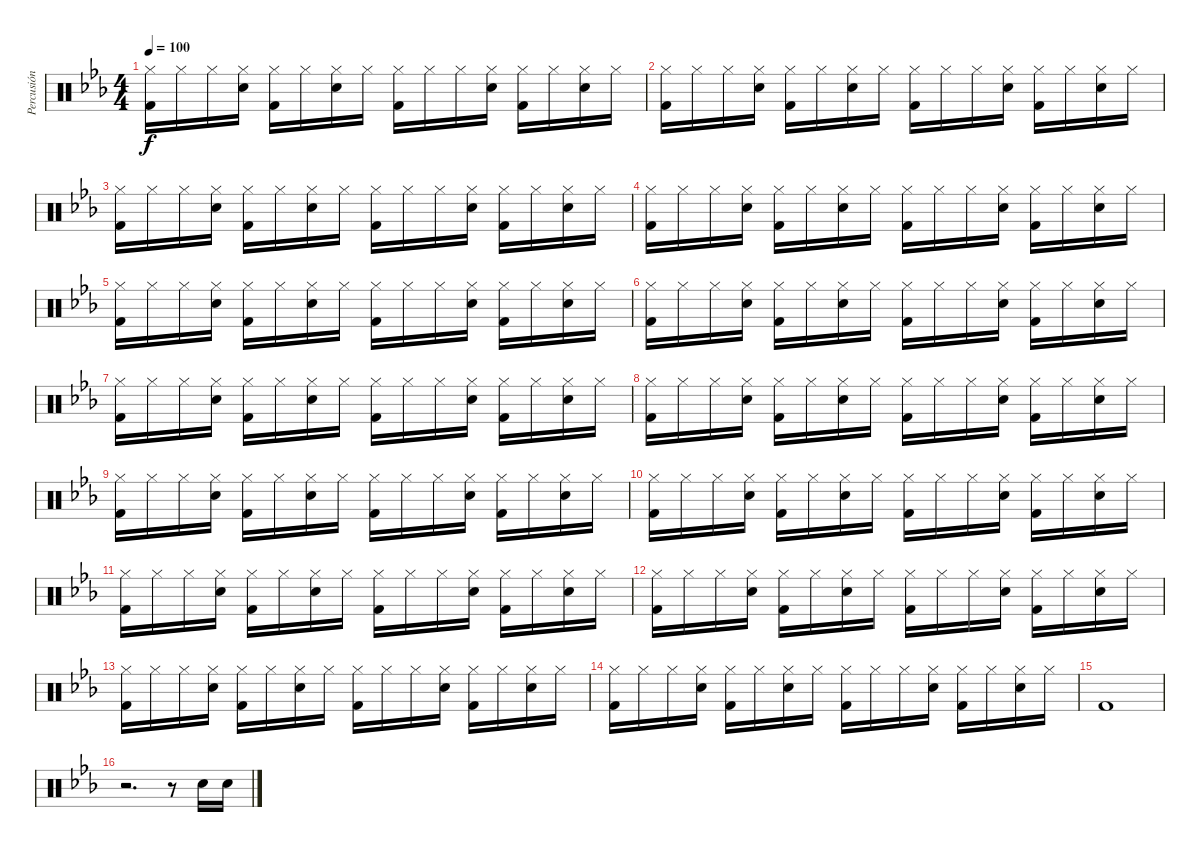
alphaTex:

\track ("Percusión" "Percusión") {instrument percussion}
\staff {score}
\articulation defaults
\ts (4 4)
\tempo 100
\clef neutral
\ks eb
("Hi-Hat (closed)" "Kick (hit) 2").16{dy f} "Hi-Hat (closed)".16 "Hi-Hat (closed)".16 ("Hi-Hat (closed)" "Electric Snare (hit)").16 ("Hi-Hat (closed)" "Kick (hit) 2").16 "Hi-Hat (closed)".16 ("Hi-Hat (closed)" "Electric Snare (hit)").16 "Hi-Hat (closed)".16 ("Hi-Hat (closed)" "Kick (hit) 2").16 "Hi-Hat (closed)".16 "Hi-Hat (closed)".16 ("Hi-Hat (closed)" "Electric Snare (hit)").16 ("Hi-Hat (closed)" "Kick (hit) 2").16 "Hi-Hat (closed)".16 ("Hi-Hat (closed)" "Electric Snare (hit)").16 "Hi-Hat (closed)".16 |
("Hi-Hat (closed)" "Kick (hit) 2").16 "Hi-Hat (closed)".16 "Hi-Hat (closed)".16 ("Hi-Hat (closed)" "Electric Snare (hit)").16 ("Hi-Hat (closed)" "Kick (hit) 2").16 "Hi-Hat (closed)".16 ("Hi-Hat (closed)" "Electric Snare (hit)").16 "Hi-Hat (closed)".16 ("Hi-Hat (closed)" "Kick (hit) 2").16 "Hi-Hat (closed)".16 "Hi-Hat (closed)".16 ("Hi-Hat (closed)" "Electric Snare (hit)").16 ("Hi-Hat (closed)" "Kick (hit) 2").16 "Hi-Hat (closed)".16 ("Hi-Hat (closed)" "Electric Snare (hit)").16 "Hi-Hat (closed)".16 |
("Hi-Hat (closed)" "Kick (hit) 2").16 "Hi-Hat (closed)".16 "Hi-Hat (closed)".16 ("Hi-Hat (closed)" "Electric Snare (hit)").16 ("Hi-Hat (closed)" "Kick (hit) 2").16 "Hi-Hat (closed)".16 ("Hi-Hat (closed)" "Electric Snare (hit)").16 "Hi-Hat (closed)".16 ("Hi-Hat (closed)" "Kick (hit) 2").16 "Hi-Hat (closed)".16 "Hi-Hat (closed)".16 ("Hi-Hat (closed)" "Electric Snare (hit)").16 ("Hi-Hat (closed)" "Kick (hit) 2").16 "Hi-Hat (closed)".16 ("Hi-Hat (closed)" "Electric Snare (hit)").16 "Hi-Hat (closed)".16 |
("Hi-Hat (closed)" "Kick (hit) 2").16 "Hi-Hat (closed)".16 "Hi-Hat (closed)".16 ("Hi-Hat (closed)" "Electric Snare (hit)").16 ("Hi-Hat (closed)" "Kick (hit) 2").16 "Hi-Hat (closed)".16 ("Hi-Hat (closed)" "Electric Snare (hit)").16 "Hi-Hat (closed)".16 ("Hi-Hat (closed)" "Kick (hit) 2").16 "Hi-Hat (closed)".16 "Hi-Hat (closed)".16 ("Hi-Hat (closed)" "Electric Snare (hit)").16 ("Hi-Hat (closed)" "Kick (hit) 2").16 "Hi-Hat (closed)".16 ("Hi-Hat (closed)" "Electric Snare (hit)").16 "Hi-Hat (closed)".16 |
("Hi-Hat (closed)" "Kick (hit) 2").16 "Hi-Hat (closed)".16 "Hi-Hat (closed)".16 ("Hi-Hat (closed)" "Electric Snare (hit)").16 ("Hi-Hat (closed)" "Kick (hit) 2").16 "Hi-Hat (closed)".16 ("Hi-Hat (closed)" "Electric Snare (hit)").16 "Hi-Hat (closed)".16 ("Hi-Hat (closed)" "Kick (hit) 2").16 "Hi-Hat (closed)".16 "Hi-Hat (closed)".16 ("Hi-Hat (closed)" "Electric Snare (hit)").16 ("Hi-Hat (closed)" "Kick (hit) 2").16 "Hi-Hat (closed)".16 ("Hi-Hat (closed)" "Electric Snare (hit)").16 "Hi-Hat (closed)".16 |
("Hi-Hat (closed)" "Kick (hit) 2").16 "Hi-Hat (closed)".16 "Hi-Hat (closed)".16 ("Hi-Hat (closed)" "Electric Snare (hit)").16 ("Hi-Hat (closed)" "Kick (hit) 2").16 "Hi-Hat (closed)".16 ("Hi-Hat (closed)" "Electric Snare (hit)").16 "Hi-Hat (closed)".16 ("Hi-Hat (closed)" "Kick (hit) 2").16 "Hi-Hat (closed)".16 "Hi-Hat (closed)".16 ("Hi-Hat (closed)" "Electric Snare (hit)").16 ("Hi-Hat (closed)" "Kick (hit) 2").16 "Hi-Hat (closed)".16 ("Hi-Hat (closed)" "Electric Snare (hit)").16 "Hi-Hat (closed)".16 |
("Hi-Hat (closed)" "Kick (hit) 2").16 "Hi-Hat (closed)".16 "Hi-Hat (closed)".16 ("Hi-Hat (closed)" "Electric Snare (hit)").16 ("Hi-Hat (closed)" "Kick (hit) 2").16 "Hi-Hat (closed)".16 ("Hi-Hat (closed)" "Electric Snare (hit)").16 "Hi-Hat (closed)".16 ("Hi-Hat (closed)" "Kick (hit) 2").16 "Hi-Hat (closed)".16 "Hi-Hat (closed)".16 ("Hi-Hat (closed)" "Electric Snare (hit)").16 ("Hi-Hat (closed)" "Kick (hit) 2").16 "Hi-Hat (closed)".16 ("Hi-Hat (closed)" "Electric Snare (hit)").16 "Hi-Hat (closed)".16 |
("Hi-Hat (closed)" "Kick (hit) 2").16 "Hi-Hat (closed)".16 "Hi-Hat (closed)".16 ("Hi-Hat (closed)" "Electric Snare (hit)").16 ("Hi-Hat (closed)" "Kick (hit) 2").16 "Hi-Hat (closed)".16 ("Hi-Hat (closed)" "Electric Snare (hit)").16 "Hi-Hat (closed)".16 ("Hi-Hat (closed)" "Kick (hit) 2").16 "Hi-Hat (closed)".16 "Hi-Hat (closed)".16 ("Hi-Hat (closed)" "Electric Snare (hit)").16 ("Hi-Hat (closed)" "Kick (hit) 2").16 "Hi-Hat (closed)".16 ("Hi-Hat (closed)" "Electric Snare (hit)").16 "Hi-Hat (closed)".16 |
("Hi-Hat (closed)" "Kick (hit) 2").16 "Hi-Hat (closed)".16 "Hi-Hat (closed)".16 ("Hi-Hat (closed)" "Electric Snare (hit)").16 ("Hi-Hat (closed)" "Kick (hit) 2").16 "Hi-Hat (closed)".16 ("Hi-Hat (closed)" "Electric Snare (hit)").16 "Hi-Hat (closed)".16 ("Hi-Hat (closed)" "Kick (hit) 2").16 "Hi-Hat (closed)".16 "Hi-Hat (closed)".16 ("Hi-Hat (closed)" "Electric Snare (hit)").16 ("Hi-Hat (closed)" "Kick (hit) 2").16 "Hi-Hat (closed)".16 ("Hi-Hat (closed)" "Electric Snare (hit)").16 "Hi-Hat (closed)".16 |
("Hi-Hat (closed)" "Kick (hit) 2").16 "Hi-Hat (closed)".16 "Hi-Hat (closed)".16 ("Hi-Hat (closed)" "Electric Snare (hit)").16 ("Hi-Hat (closed)" "Kick (hit) 2").16 "Hi-Hat (closed)".16 ("Hi-Hat (closed)" "Electric Snare (hit)").16 "Hi-Hat (closed)".16 ("Hi-Hat (closed)" "Kick (hit) 2").16 "Hi-Hat (closed)".16 "Hi-Hat (closed)".16 ("Hi-Hat (closed)" "Electric Snare (hit)").16 ("Hi-Hat (closed)" "Kick (hit) 2").16 "Hi-Hat (closed)".16 ("Hi-Hat (closed)" "Electric Snare (hit)").16 "Hi-Hat (closed)".16 |
("Hi-Hat (closed)" "Kick (hit) 2").16 "Hi-Hat (closed)".16 "Hi-Hat (closed)".16 ("Hi-Hat (closed)" "Electric Snare (hit)").16 ("Hi-Hat (closed)" "Kick (hit) 2").16 "Hi-Hat (closed)".16 ("Hi-Hat (closed)" "Electric Snare (hit)").16 "Hi-Hat (closed)".16 ("Hi-Hat (closed)" "Kick (hit) 2").16 "Hi-Hat (closed)".16 "Hi-Hat (closed)".16 ("Hi-Hat (closed)" "Electric Snare (hit)").16 ("Hi-Hat (closed)" "Kick (hit) 2").16 "Hi-Hat (closed)".16 ("Hi-Hat (closed)" "Electric Snare (hit)").16 "Hi-Hat (closed)".16 |
("Hi-Hat (closed)" "Kick (hit) 2").16 "Hi-Hat (closed)".16 "Hi-Hat (closed)".16 ("Hi-Hat (closed)" "Electric Snare (hit)").16 ("Hi-Hat (closed)" "Kick (hit) 2").16 "Hi-Hat (closed)".16 ("Hi-Hat (closed)" "Electric Snare (hit)").16 "Hi-Hat (closed)".16 ("Hi-Hat (closed)" "Kick (hit) 2").16 "Hi-Hat (closed)".16 "Hi-Hat (closed)".16 ("Hi-Hat (closed)" "Electric Snare (hit)").16 ("Hi-Hat (closed)" "Kick (hit) 2").16 "Hi-Hat (closed)".16 ("Hi-Hat (closed)" "Electric Snare (hit)").16 "Hi-Hat (closed)".16 |
("Hi-Hat (closed)" "Kick (hit) 2").16 "Hi-Hat (closed)".16 "Hi-Hat (closed)".16 ("Hi-Hat (closed)" "Electric Snare (hit)").16 ("Hi-Hat (closed)" "Kick (hit) 2").16 "Hi-Hat (closed)".16 ("Hi-Hat (closed)" "Electric Snare (hit)").16 "Hi-Hat (closed)".16 ("Hi-Hat (closed)" "Kick (hit) 2").16 "Hi-Hat (closed)".16 "Hi-Hat (closed)".16 ("Hi-Hat (closed)" "Electric Snare (hit)").16 ("Hi-Hat (closed)" "Kick (hit) 2").16 "Hi-Hat (closed)".16 ("Hi-Hat (closed)" "Electric Snare (hit)").16 "Hi-Hat (closed)".16 |
("Hi-Hat (closed)" "Kick (hit) 2").16 "Hi-Hat (closed)".16 "Hi-Hat (closed)".16 ("Hi-Hat (closed)" "Electric Snare (hit)").16 ("Hi-Hat (closed)" "Kick (hit) 2").16 "Hi-Hat (closed)".16 ("Hi-Hat (closed)" "Electric Snare (hit)").16 "Hi-Hat (closed)".16 ("Hi-Hat (closed)" "Kick (hit) 2").16 "Hi-Hat (closed)".16 "Hi-Hat (closed)".16 ("Hi-Hat (closed)" "Electric Snare (hit)").16 ("Hi-Hat (closed)" "Kick (hit) 2").16 "Hi-Hat (closed)".16 ("Hi-Hat (closed)" "Electric Snare (hit)").16 "Hi-Hat (closed)".16 |
"Kick (hit) 2".1 |
r.2{d} r.8 "Electric Snare (hit)".16 "Electric Snare (hit)".16
